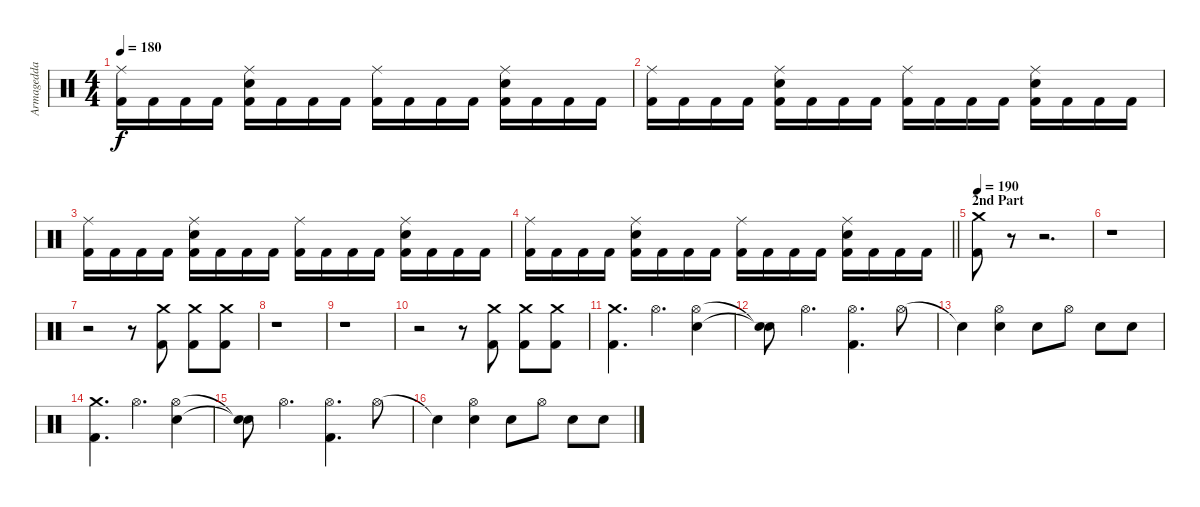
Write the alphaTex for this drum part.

\track ("Armagedda" "Armagedda") {instrument percussion}
\staff {score}
\articulation defaults
\ts (4 4)
\tempo 180
\clef neutral
\ks c
("Ride (middle)" "Kick (hit) 2").16{dy f} "Kick (hit) 2".16 "Kick (hit) 2".16 "Kick (hit) 2".16 ("Ride (middle)" "Electric Snare (hit)" "Kick (hit) 2").16 "Kick (hit) 2".16 "Kick (hit) 2".16 "Kick (hit) 2".16 ("Ride (middle)" "Kick (hit) 2").16 "Kick (hit) 2".16 "Kick (hit) 2".16 "Kick (hit) 2".16 ("Ride (middle)" "Electric Snare (hit)" "Kick (hit) 2").16 "Kick (hit) 2".16 "Kick (hit) 2".16 "Kick (hit) 2".16 |
("Ride (middle)" "Kick (hit) 2").16 "Kick (hit) 2".16 "Kick (hit) 2".16 "Kick (hit) 2".16 ("Ride (middle)" "Electric Snare (hit)" "Kick (hit) 2").16 "Kick (hit) 2".16 "Kick (hit) 2".16 "Kick (hit) 2".16 ("Ride (middle)" "Kick (hit) 2").16 "Kick (hit) 2".16 "Kick (hit) 2".16 "Kick (hit) 2".16 ("Ride (middle)" "Electric Snare (hit)" "Kick (hit) 2").16 "Kick (hit) 2".16 "Kick (hit) 2".16 "Kick (hit) 2".16 |
("Ride (middle)" "Kick (hit) 2").16 "Kick (hit) 2".16 "Kick (hit) 2".16 "Kick (hit) 2".16 ("Ride (middle)" "Electric Snare (hit)" "Kick (hit) 2").16 "Kick (hit) 2".16 "Kick (hit) 2".16 "Kick (hit) 2".16 ("Ride (middle)" "Kick (hit) 2").16 "Kick (hit) 2".16 "Kick (hit) 2".16 "Kick (hit) 2".16 ("Ride (middle)" "Electric Snare (hit)" "Kick (hit) 2").16 "Kick (hit) 2".16 "Kick (hit) 2".16 "Kick (hit) 2".16 |
\barLineRight lightlight
("Ride (middle)" "Kick (hit) 2").16 "Kick (hit) 2".16 "Kick (hit) 2".16 "Kick (hit) 2".16 ("Ride (middle)" "Electric Snare (hit)" "Kick (hit) 2").16 "Kick (hit) 2".16 "Kick (hit) 2".16 "Kick (hit) 2".16 ("Ride (middle)" "Kick (hit) 2").16 "Kick (hit) 2".16 "Kick (hit) 2".16 "Kick (hit) 2".16 ("Ride (middle)" "Electric Snare (hit)" "Kick (hit) 2").16 "Kick (hit) 2".16 "Kick (hit) 2".16 "Kick (hit) 2".16 |
\section ("" "2nd Part")
\tempo 190
("Crash medium (hit)" "Kick (hit) 2").8 r.8 r.2{d} |
r.1 |
r.2 r.8 ("Crash medium (hit)" "Kick (hit) 2").8 ("Crash medium (hit)" "Kick (hit) 2").8 ("Crash medium (hit)" "Kick (hit) 2").8 |
r.1 |
r.1 |
r.2 r.8 ("Crash medium (hit)" "Kick (hit) 2").8 ("Crash medium (hit)" "Kick (hit) 2").8 ("Crash medium (hit)" "Kick (hit) 2").8 |
("Crash medium (hit)" "Kick (hit) 2").4{d} "Hi-Hat (open)".4{d} ("Hi-Hat (open)" "Electric Snare (hit)").4 |
("Snare (hit)"{t} "Snare (hit)"{t}).8 "Hi-Hat (open)".4{d} ("Hi-Hat (open)" "Kick (hit) 2").4{d} "Hi-Hat (open)".8 |
"Snare (hit)"{t}.4 ("Hi-Hat (open)" "Electric Snare (hit)").4 "Electric Snare (hit)".8 "Hi-Hat (open)".8 "Electric Snare (hit)".8 "Electric Snare (hit)".8 |
("Crash medium (hit)" "Kick (hit) 2").4{d} "Hi-Hat (open)".4{d} ("Hi-Hat (open)" "Electric Snare (hit)").4 |
("Snare (hit)"{t} "Snare (hit)"{t}).8 "Hi-Hat (open)".4{d} ("Hi-Hat (open)" "Kick (hit) 2").4{d} "Hi-Hat (open)".8 |
"Snare (hit)"{t}.4 ("Hi-Hat (open)" "Electric Snare (hit)").4 "Electric Snare (hit)".8 "Hi-Hat (open)".8 "Electric Snare (hit)".8 "Electric Snare (hit)".8
